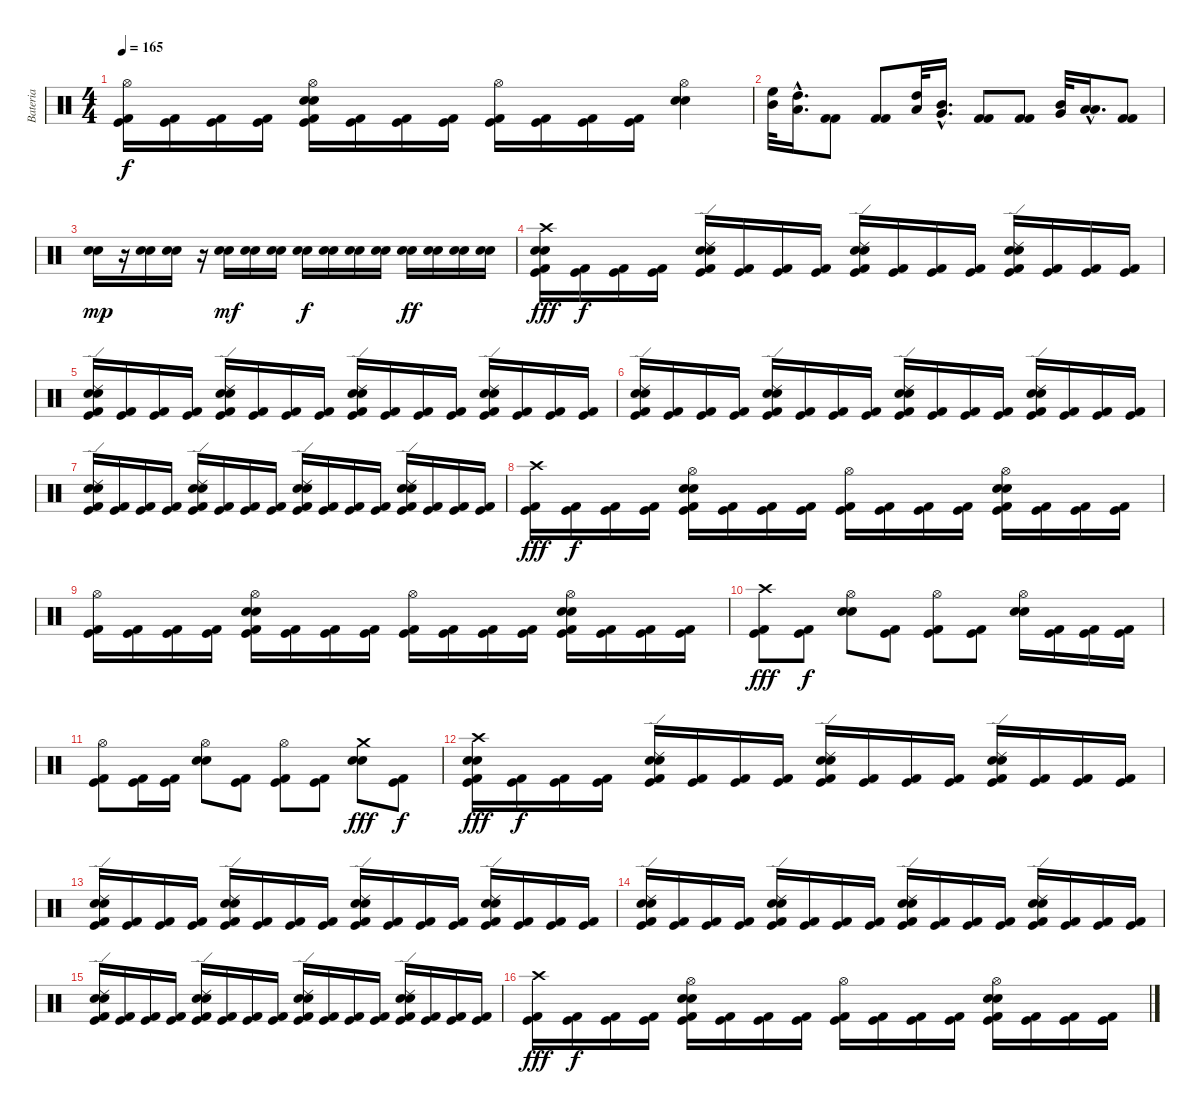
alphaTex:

\track ("Bateria" "Bateria") {instrument percussion}
\staff {score}
\articulation defaults
\ts (4 4)
\tempo 165
\clef neutral
\ks c
("Hi-Hat (open)" "Kick (hit) 2" "Kick (hit)").16{dy f} ("Kick (hit) 2" "Kick (hit)").16 ("Kick (hit) 2" "Kick (hit)").16 ("Kick (hit) 2" "Kick (hit)").16 ("Hi-Hat (open)" "Electric Snare (hit)" "Snare (hit) 2" "Kick (hit) 2" "Kick (hit)").16 ("Kick (hit) 2" "Kick (hit)").16 ("Kick (hit) 2" "Kick (hit)").16 ("Kick (hit) 2" "Kick (hit)").16 ("Hi-Hat (open)" "Kick (hit) 2" "Kick (hit)").16 ("Kick (hit) 2" "Kick (hit)").16 ("Kick (hit) 2" "Kick (hit)").16 ("Kick (hit) 2" "Kick (hit)").16 ("Hi-Hat (open)" "Electric Snare (hit)" "Snare (hit) 2").4 |
("High Floor Tom (hit)" "Mid Tom (hit)").32 ("High Tom (hit)"{hac} "Low Tom (hit)"{hac}).16{d} ("Kick (hit) 2" "Kick (hit) 2").8 ("Kick (hit) 2" "Kick (hit) 2").8 ("High Tom (hit)" "Low Tom (hit)").32 ("Mid Tom (hit)"{hac} "Very Low Tom (hit)"{hac}).16{d} ("Kick (hit) 2" "Kick (hit) 2").8 ("Kick (hit) 2" "Kick (hit) 2").8 ("Mid Tom (hit)" "Very Low Tom (hit)").32 ("Low Tom (hit)"{hac} "Low Floor Tom (hit)"{hac}).16{d} ("Kick (hit) 2" "Kick (hit) 2").8 |
("Electric Snare (hit)" "Snare (hit) 2").16{dy mp} r.16 ("Electric Snare (hit)" "Snare (hit) 2").16 ("Electric Snare (hit)" "Snare (hit) 2").16 r.16 ("Electric Snare (hit)" "Snare (hit) 2").16{dy mf} ("Electric Snare (hit)" "Snare (hit) 2").16 ("Electric Snare (hit)" "Snare (hit) 2").16 ("Electric Snare (hit)" "Snare (hit) 2").16{dy f} ("Electric Snare (hit)" "Snare (hit) 2").16 ("Electric Snare (hit)" "Snare (hit) 2").16 ("Electric Snare (hit)" "Snare (hit) 2").16 ("Electric Snare (hit)" "Snare (hit) 2").16{dy ff} ("Electric Snare (hit)" "Snare (hit) 2").16 ("Electric Snare (hit)" "Snare (hit) 2").16 ("Electric Snare (hit)" "Snare (hit) 2").16 |
("Crash high (hit)" "Electric Snare (hit)" "Snare (hit) 2" "Kick (hit) 2" "Kick (hit)").16{dy fff} ("Kick (hit) 2" "Kick (hit)").16{dy f} ("Kick (hit) 2" "Kick (hit)").16 ("Kick (hit) 2" "Kick (hit)").16 ("Ride (edge) 2" "Electric Snare (hit)" "Snare (hit) 2" "Kick (hit) 2" "Kick (hit)").16 ("Kick (hit) 2" "Kick (hit)").16 ("Kick (hit) 2" "Kick (hit)").16 ("Kick (hit) 2" "Kick (hit)").16 ("Ride (edge) 2" "Electric Snare (hit)" "Snare (hit) 2" "Kick (hit) 2" "Kick (hit)").16 ("Kick (hit) 2" "Kick (hit)").16 ("Kick (hit) 2" "Kick (hit)").16 ("Kick (hit) 2" "Kick (hit)").16 ("Ride (edge) 2" "Electric Snare (hit)" "Snare (hit) 2" "Kick (hit) 2" "Kick (hit)").16 ("Kick (hit) 2" "Kick (hit)").16 ("Kick (hit) 2" "Kick (hit)").16 ("Kick (hit) 2" "Kick (hit)").16 |
("Ride (edge) 2" "Electric Snare (hit)" "Snare (hit) 2" "Kick (hit) 2" "Kick (hit)").16 ("Kick (hit) 2" "Kick (hit)").16 ("Kick (hit) 2" "Kick (hit)").16 ("Kick (hit) 2" "Kick (hit)").16 ("Ride (edge) 2" "Electric Snare (hit)" "Snare (hit) 2" "Kick (hit) 2" "Kick (hit)").16 ("Kick (hit) 2" "Kick (hit)").16 ("Kick (hit) 2" "Kick (hit)").16 ("Kick (hit) 2" "Kick (hit)").16 ("Ride (edge) 2" "Electric Snare (hit)" "Snare (hit) 2" "Kick (hit) 2" "Kick (hit)").16 ("Kick (hit) 2" "Kick (hit)").16 ("Kick (hit) 2" "Kick (hit)").16 ("Kick (hit) 2" "Kick (hit)").16 ("Ride (edge) 2" "Electric Snare (hit)" "Snare (hit) 2" "Kick (hit) 2" "Kick (hit)").16 ("Kick (hit) 2" "Kick (hit)").16 ("Kick (hit) 2" "Kick (hit)").16 ("Kick (hit) 2" "Kick (hit)").16 |
("Ride (edge) 2" "Electric Snare (hit)" "Snare (hit) 2" "Kick (hit) 2" "Kick (hit)").16 ("Kick (hit) 2" "Kick (hit)").16 ("Kick (hit) 2" "Kick (hit)").16 ("Kick (hit) 2" "Kick (hit)").16 ("Ride (edge) 2" "Electric Snare (hit)" "Snare (hit) 2" "Kick (hit) 2" "Kick (hit)").16 ("Kick (hit) 2" "Kick (hit)").16 ("Kick (hit) 2" "Kick (hit)").16 ("Kick (hit) 2" "Kick (hit)").16 ("Ride (edge) 2" "Electric Snare (hit)" "Snare (hit) 2" "Kick (hit) 2" "Kick (hit)").16 ("Kick (hit) 2" "Kick (hit)").16 ("Kick (hit) 2" "Kick (hit)").16 ("Kick (hit) 2" "Kick (hit)").16 ("Ride (edge) 2" "Electric Snare (hit)" "Snare (hit) 2" "Kick (hit) 2" "Kick (hit)").16 ("Kick (hit) 2" "Kick (hit)").16 ("Kick (hit) 2" "Kick (hit)").16 ("Kick (hit) 2" "Kick (hit)").16 |
("Ride (edge) 2" "Electric Snare (hit)" "Snare (hit) 2" "Kick (hit) 2" "Kick (hit)").16 ("Kick (hit) 2" "Kick (hit)").16 ("Kick (hit) 2" "Kick (hit)").16 ("Kick (hit) 2" "Kick (hit)").16 ("Ride (edge) 2" "Electric Snare (hit)" "Snare (hit) 2" "Kick (hit) 2" "Kick (hit)").16 ("Kick (hit) 2" "Kick (hit)").16 ("Kick (hit) 2" "Kick (hit)").16 ("Kick (hit) 2" "Kick (hit)").16 ("Ride (edge) 2" "Electric Snare (hit)" "Snare (hit) 2" "Kick (hit) 2" "Kick (hit)").16 ("Kick (hit) 2" "Kick (hit)").16 ("Kick (hit) 2" "Kick (hit)").16 ("Kick (hit) 2" "Kick (hit)").16 ("Ride (edge) 2" "Electric Snare (hit)" "Snare (hit) 2" "Kick (hit) 2" "Kick (hit)").16 ("Kick (hit) 2" "Kick (hit)").16 ("Kick (hit) 2" "Kick (hit)").16 ("Kick (hit) 2" "Kick (hit)").16 |
("Crash high (hit)" "Kick (hit) 2" "Kick (hit)").16{dy fff} ("Kick (hit) 2" "Kick (hit)").16{dy f} ("Kick (hit) 2" "Kick (hit)").16 ("Kick (hit) 2" "Kick (hit)").16 ("Hi-Hat (open)" "Electric Snare (hit)" "Snare (hit) 2" "Kick (hit) 2" "Kick (hit)").16 ("Kick (hit) 2" "Kick (hit)").16 ("Kick (hit) 2" "Kick (hit)").16 ("Kick (hit) 2" "Kick (hit)").16 ("Hi-Hat (open)" "Kick (hit) 2" "Kick (hit)").16 ("Kick (hit) 2" "Kick (hit)").16 ("Kick (hit) 2" "Kick (hit)").16 ("Kick (hit) 2" "Kick (hit)").16 ("Hi-Hat (open)" "Electric Snare (hit)" "Snare (hit) 2" "Kick (hit) 2" "Kick (hit)").16 ("Kick (hit) 2" "Kick (hit)").16 ("Kick (hit) 2" "Kick (hit)").16 ("Kick (hit) 2" "Kick (hit)").16 |
("Hi-Hat (open)" "Kick (hit) 2" "Kick (hit)").16 ("Kick (hit) 2" "Kick (hit)").16 ("Kick (hit) 2" "Kick (hit)").16 ("Kick (hit) 2" "Kick (hit)").16 ("Hi-Hat (open)" "Electric Snare (hit)" "Snare (hit) 2" "Kick (hit) 2" "Kick (hit)").16 ("Kick (hit) 2" "Kick (hit)").16 ("Kick (hit) 2" "Kick (hit)").16 ("Kick (hit) 2" "Kick (hit)").16 ("Hi-Hat (open)" "Kick (hit) 2" "Kick (hit)").16 ("Kick (hit) 2" "Kick (hit)").16 ("Kick (hit) 2" "Kick (hit)").16 ("Kick (hit) 2" "Kick (hit)").16 ("Hi-Hat (open)" "Electric Snare (hit)" "Snare (hit) 2" "Kick (hit) 2" "Kick (hit)").16 ("Kick (hit) 2" "Kick (hit)").16 ("Kick (hit) 2" "Kick (hit)").16 ("Kick (hit) 2" "Kick (hit)").16 |
("Crash high (hit)" "Kick (hit) 2" "Kick (hit)").8{dy fff} ("Kick (hit) 2" "Kick (hit)").8{dy f} ("Hi-Hat (open)" "Electric Snare (hit)" "Snare (hit) 2").8 ("Kick (hit) 2" "Kick (hit)").8 ("Hi-Hat (open)" "Kick (hit) 2" "Kick (hit)").8 ("Kick (hit) 2" "Kick (hit)").8 ("Hi-Hat (open)" "Electric Snare (hit)" "Snare (hit) 2").16 ("Kick (hit) 2" "Kick (hit)").16 ("Kick (hit) 2" "Kick (hit)").16 ("Kick (hit) 2" "Kick (hit)").16 |
("Hi-Hat (open)" "Kick (hit) 2" "Kick (hit)").8 ("Kick (hit) 2" "Kick (hit)").16 ("Kick (hit) 2" "Kick (hit)").16 ("Hi-Hat (open)" "Electric Snare (hit)" "Snare (hit) 2").8 ("Kick (hit) 2" "Kick (hit)").8 ("Hi-Hat (open)" "Kick (hit) 2" "Kick (hit)").8 ("Kick (hit) 2" "Kick (hit)").8 ("Crash medium (hit)" "Electric Snare (hit)" "Snare (hit) 2").8{dy fff} ("Kick (hit) 2" "Kick (hit)").8{dy f} |
("Crash high (hit)" "Electric Snare (hit)" "Snare (hit) 2" "Kick (hit) 2" "Kick (hit)").16{dy fff} ("Kick (hit) 2" "Kick (hit)").16{dy f} ("Kick (hit) 2" "Kick (hit)").16 ("Kick (hit) 2" "Kick (hit)").16 ("Ride (edge) 2" "Electric Snare (hit)" "Snare (hit) 2" "Kick (hit) 2" "Kick (hit)").16 ("Kick (hit) 2" "Kick (hit)").16 ("Kick (hit) 2" "Kick (hit)").16 ("Kick (hit) 2" "Kick (hit)").16 ("Ride (edge) 2" "Electric Snare (hit)" "Snare (hit) 2" "Kick (hit) 2" "Kick (hit)").16 ("Kick (hit) 2" "Kick (hit)").16 ("Kick (hit) 2" "Kick (hit)").16 ("Kick (hit) 2" "Kick (hit)").16 ("Ride (edge) 2" "Electric Snare (hit)" "Snare (hit) 2" "Kick (hit) 2" "Kick (hit)").16 ("Kick (hit) 2" "Kick (hit)").16 ("Kick (hit) 2" "Kick (hit)").16 ("Kick (hit) 2" "Kick (hit)").16 |
("Ride (edge) 2" "Electric Snare (hit)" "Snare (hit) 2" "Kick (hit) 2" "Kick (hit)").16 ("Kick (hit) 2" "Kick (hit)").16 ("Kick (hit) 2" "Kick (hit)").16 ("Kick (hit) 2" "Kick (hit)").16 ("Ride (edge) 2" "Electric Snare (hit)" "Snare (hit) 2" "Kick (hit) 2" "Kick (hit)").16 ("Kick (hit) 2" "Kick (hit)").16 ("Kick (hit) 2" "Kick (hit)").16 ("Kick (hit) 2" "Kick (hit)").16 ("Ride (edge) 2" "Electric Snare (hit)" "Snare (hit) 2" "Kick (hit) 2" "Kick (hit)").16 ("Kick (hit) 2" "Kick (hit)").16 ("Kick (hit) 2" "Kick (hit)").16 ("Kick (hit) 2" "Kick (hit)").16 ("Ride (edge) 2" "Electric Snare (hit)" "Snare (hit) 2" "Kick (hit) 2" "Kick (hit)").16 ("Kick (hit) 2" "Kick (hit)").16 ("Kick (hit) 2" "Kick (hit)").16 ("Kick (hit) 2" "Kick (hit)").16 |
("Ride (edge) 2" "Electric Snare (hit)" "Snare (hit) 2" "Kick (hit) 2" "Kick (hit)").16 ("Kick (hit) 2" "Kick (hit)").16 ("Kick (hit) 2" "Kick (hit)").16 ("Kick (hit) 2" "Kick (hit)").16 ("Ride (edge) 2" "Electric Snare (hit)" "Snare (hit) 2" "Kick (hit) 2" "Kick (hit)").16 ("Kick (hit) 2" "Kick (hit)").16 ("Kick (hit) 2" "Kick (hit)").16 ("Kick (hit) 2" "Kick (hit)").16 ("Ride (edge) 2" "Electric Snare (hit)" "Snare (hit) 2" "Kick (hit) 2" "Kick (hit)").16 ("Kick (hit) 2" "Kick (hit)").16 ("Kick (hit) 2" "Kick (hit)").16 ("Kick (hit) 2" "Kick (hit)").16 ("Ride (edge) 2" "Electric Snare (hit)" "Snare (hit) 2" "Kick (hit) 2" "Kick (hit)").16 ("Kick (hit) 2" "Kick (hit)").16 ("Kick (hit) 2" "Kick (hit)").16 ("Kick (hit) 2" "Kick (hit)").16 |
("Ride (edge) 2" "Electric Snare (hit)" "Snare (hit) 2" "Kick (hit) 2" "Kick (hit)").16 ("Kick (hit) 2" "Kick (hit)").16 ("Kick (hit) 2" "Kick (hit)").16 ("Kick (hit) 2" "Kick (hit)").16 ("Ride (edge) 2" "Electric Snare (hit)" "Snare (hit) 2" "Kick (hit) 2" "Kick (hit)").16 ("Kick (hit) 2" "Kick (hit)").16 ("Kick (hit) 2" "Kick (hit)").16 ("Kick (hit) 2" "Kick (hit)").16 ("Ride (edge) 2" "Electric Snare (hit)" "Snare (hit) 2" "Kick (hit) 2" "Kick (hit)").16 ("Kick (hit) 2" "Kick (hit)").16 ("Kick (hit) 2" "Kick (hit)").16 ("Kick (hit) 2" "Kick (hit)").16 ("Ride (edge) 2" "Electric Snare (hit)" "Snare (hit) 2" "Kick (hit) 2" "Kick (hit)").16 ("Kick (hit) 2" "Kick (hit)").16 ("Kick (hit) 2" "Kick (hit)").16 ("Kick (hit) 2" "Kick (hit)").16 |
("Crash high (hit)" "Kick (hit) 2" "Kick (hit)").16{dy fff} ("Kick (hit) 2" "Kick (hit)").16{dy f} ("Kick (hit) 2" "Kick (hit)").16 ("Kick (hit) 2" "Kick (hit)").16 ("Hi-Hat (open)" "Electric Snare (hit)" "Snare (hit) 2" "Kick (hit) 2" "Kick (hit)").16 ("Kick (hit) 2" "Kick (hit)").16 ("Kick (hit) 2" "Kick (hit)").16 ("Kick (hit) 2" "Kick (hit)").16 ("Hi-Hat (open)" "Kick (hit) 2" "Kick (hit)").16 ("Kick (hit) 2" "Kick (hit)").16 ("Kick (hit) 2" "Kick (hit)").16 ("Kick (hit) 2" "Kick (hit)").16 ("Hi-Hat (open)" "Electric Snare (hit)" "Snare (hit) 2" "Kick (hit) 2" "Kick (hit)").16 ("Kick (hit) 2" "Kick (hit)").16 ("Kick (hit) 2" "Kick (hit)").16 ("Kick (hit) 2" "Kick (hit)").16
